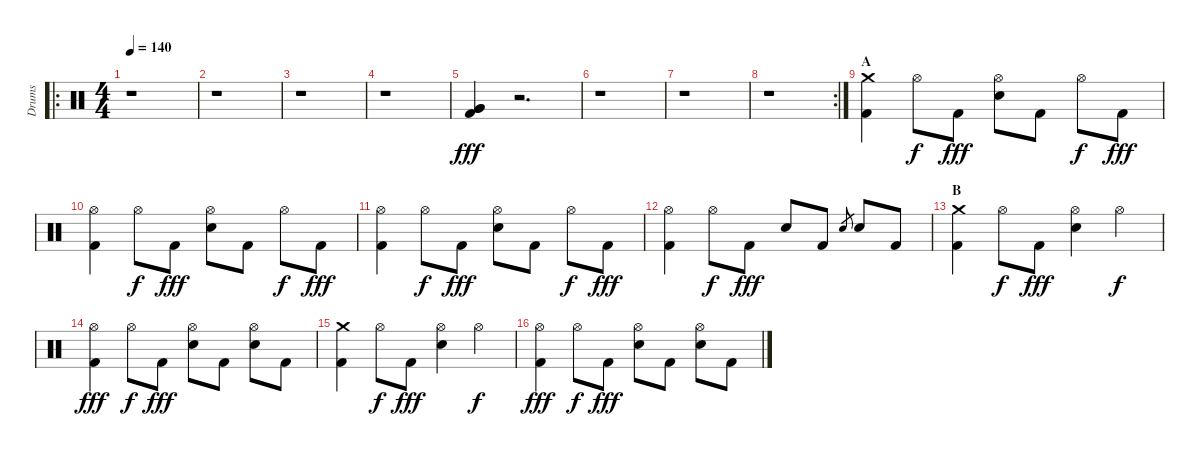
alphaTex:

\track ("Drums" "Drums") {instrument percussion}
\staff {score}
\articulation defaults
\ro
\ts (4 4)
\tempo 140
\clef neutral
\ks c
r.1{dy fff} |
r.1 |
r.1 |
r.1 |
("Very Low Tom (hit)" "Very Low Tom (hit)" "Kick (hit) 2").4 r.2{d} |
r.1 |
r.1 |
\rc 2
r.1 |
\section ("" "A")
("Crash medium (hit)" "Kick (hit) 2").4 "Hi-Hat (open)".8{dy f} "Kick (hit) 2".8{dy fff} ("Hi-Hat (open)" "Electric Snare (hit)").8 "Kick (hit) 2".8 "Hi-Hat (open)".8{dy f} "Kick (hit) 2".8{dy fff} |
("Hi-Hat (open)" "Kick (hit) 2").4 "Hi-Hat (open)".8{dy f} "Kick (hit) 2".8{dy fff} ("Hi-Hat (open)" "Electric Snare (hit)").8 "Kick (hit) 2".8 "Hi-Hat (open)".8{dy f} "Kick (hit) 2".8{dy fff} |
("Hi-Hat (open)" "Kick (hit) 2").4 "Hi-Hat (open)".8{dy f} "Kick (hit) 2".8{dy fff} ("Hi-Hat (open)" "Electric Snare (hit)").8 "Kick (hit) 2".8 "Hi-Hat (open)".8{dy f} "Kick (hit) 2".8{dy fff} |
("Hi-Hat (open)" "Kick (hit) 2").4 "Hi-Hat (open)".8{dy f} "Kick (hit) 2".8{dy fff} "Electric Snare (hit)".8 "Kick (hit) 2".8 "Electric Snare (hit)".8{gr} "Electric Snare (hit)".8 "Kick (hit) 2".8 |
\section ("" "B")
("Crash medium (hit)" "Kick (hit) 2").4 "Hi-Hat (open)".8{dy f} "Kick (hit) 2".8{dy fff} ("Hi-Hat (open)" "Electric Snare (hit)").4 "Hi-Hat (open)".4{dy f} |
("Hi-Hat (open)" "Kick (hit) 2").4{dy fff} "Hi-Hat (open)".8{dy f} "Kick (hit) 2".8{dy fff} ("Hi-Hat (open)" "Electric Snare (hit)").8 "Kick (hit) 2".8 ("Hi-Hat (open)" "Electric Snare (hit)").8 "Kick (hit) 2".8 |
("Crash medium (hit)" "Kick (hit) 2").4 "Hi-Hat (open)".8{dy f} "Kick (hit) 2".8{dy fff} ("Hi-Hat (open)" "Electric Snare (hit)").4 "Hi-Hat (open)".4{dy f} |
("Hi-Hat (open)" "Kick (hit) 2").4{dy fff} "Hi-Hat (open)".8{dy f} "Kick (hit) 2".8{dy fff} ("Hi-Hat (open)" "Electric Snare (hit)").8 "Kick (hit) 2".8 ("Hi-Hat (open)" "Electric Snare (hit)").8 "Kick (hit) 2".8
